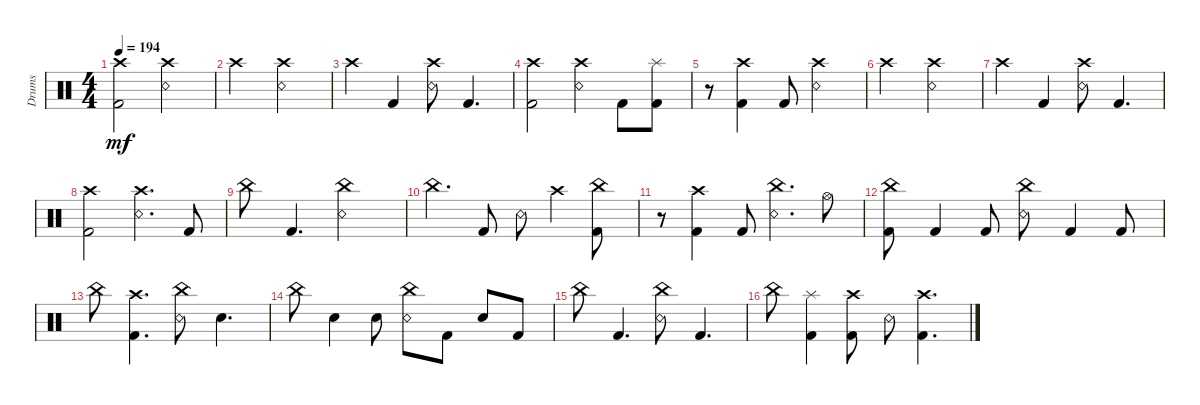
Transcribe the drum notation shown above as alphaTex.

\track ("Drums" "Drums") {instrument percussion}
\staff {score}
\articulation defaults
\ts (4 4)
\tempo 194
\clef neutral
\ks c
("Crash high (hit)" "Kick (hit) 2").2{dy mf} ("Crash high (hit)" "Snare (rim shot)").2 |
"Crash high (hit)".2 ("Crash high (hit)" "Snare (rim shot)").2 |
"Crash high (hit)".4 "Kick (hit) 2".4 ("Crash high (hit)" "Snare (rim shot)").8 "Kick (hit) 2".4{d} |
("Crash high (hit)" "Kick (hit) 2").2 ("Crash high (hit)" "Snare (rim shot)").4 "Kick (hit) 2".8 ("Splash (hit)" "Kick (hit) 2").8 |
r.8 ("Crash high (hit)" "Kick (hit) 2").4 "Kick (hit) 2".8 ("Crash high (hit)" "Snare (rim shot)").2 |
"Crash high (hit)".2 ("Crash high (hit)" "Snare (rim shot)").2 |
"Crash high (hit)".4 "Kick (hit) 2".4 ("Crash high (hit)" "Snare (rim shot)").8 "Kick (hit) 2".4{d} |
("Crash high (hit)" "Kick (hit) 2").2 ("Crash high (hit)" "Snare (rim shot)").4{d} "Kick (hit) 2".8 |
"China (hit)".8 "Kick (hit) 2".4{d} ("China (hit)" "Snare (rim shot)").2 |
"China (hit)".4{d} "Kick (hit) 2".8 "Snare (rim shot)".8 "Crash high (hit)".4 ("China (hit)" "Kick (hit) 2").8 |
r.8 ("Crash high (hit)" "Kick (hit) 2").4 "Kick (hit) 2".8 ("China (hit)" "Snare (rim shot)").4{d} "Hi-Hat (open)".8 |
("China (hit)" "Kick (hit) 2").8 "Kick (hit) 2".4 "Kick (hit) 2".8 ("China (hit)" "Snare (rim shot)").8 "Kick (hit) 2".4 "Kick (hit) 2".8 |
"China (hit)".8 ("Crash high (hit)" "Kick (hit) 2").4{d} ("China (hit)" "Snare (rim shot)").8 "Snare (hit) 2".4{d} |
"China (hit)".8 "Snare (hit) 2".4 "Snare (hit) 2".8 ("China (hit)" "Snare (rim shot)").8 "Kick (hit) 2".8 "Snare (hit) 2".8 "Kick (hit) 2".8 |
"China (hit)".8 "Kick (hit) 2".4{d} ("China (hit)" "Snare (rim shot)").8 "Kick (hit) 2".4{d} |
"China (hit)".8 ("Splash (hit)" "Kick (hit) 2").4 ("Crash high (hit)" "Kick (hit) 2").8 "Snare (rim shot)".8 ("Crash high (hit)" "Kick (hit) 2").4{d}
